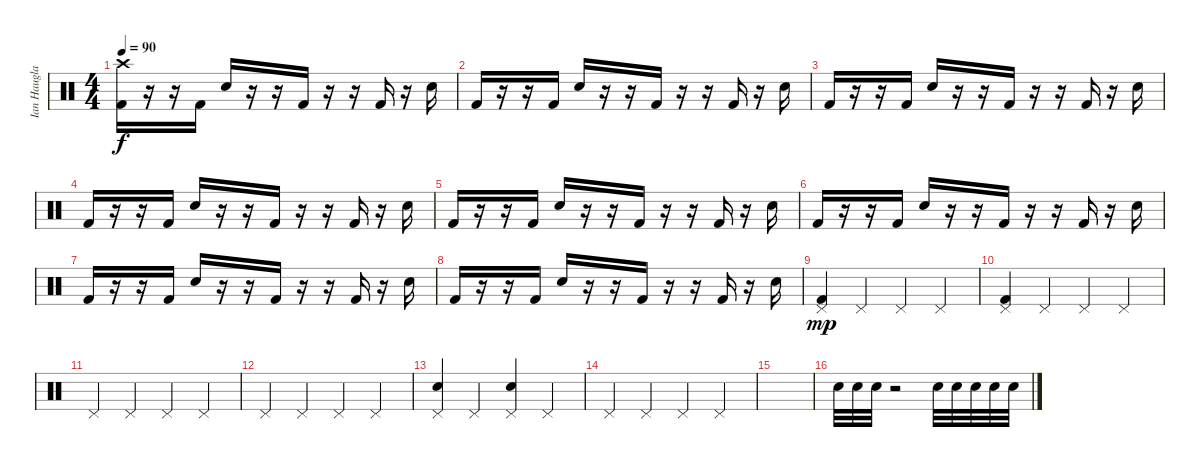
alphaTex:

\track ("Ian Haugland" "Ian Haugla") {instrument percussion}
\staff {score}
\articulation defaults
\ts (4 4)
\tempo 90
\clef neutral
\ks c
("Crash high (hit)" "Kick (hit) 2").16{dy f} r.16 r.16 "Kick (hit) 2".16 "Electric Snare (hit)".16 r.16 r.16 "Kick (hit) 2".16 r.16 r.16 "Kick (hit) 2".16 r.16 "Electric Snare (hit)".16 |
"Kick (hit) 2".16 r.16 r.16 "Kick (hit) 2".16 "Electric Snare (hit)".16 r.16 r.16 "Kick (hit) 2".16 r.16 r.16 "Kick (hit) 2".16 r.16 "Electric Snare (hit)".16 |
"Kick (hit) 2".16 r.16 r.16 "Kick (hit) 2".16 "Electric Snare (hit)".16 r.16 r.16 "Kick (hit) 2".16 r.16 r.16 "Kick (hit) 2".16 r.16 "Electric Snare (hit)".16 |
"Kick (hit) 2".16 r.16 r.16 "Kick (hit) 2".16 "Electric Snare (hit)".16 r.16 r.16 "Kick (hit) 2".16 r.16 r.16 "Kick (hit) 2".16 r.16 "Electric Snare (hit)".16 |
"Kick (hit) 2".16 r.16 r.16 "Kick (hit) 2".16 "Electric Snare (hit)".16 r.16 r.16 "Kick (hit) 2".16 r.16 r.16 "Kick (hit) 2".16 r.16 "Electric Snare (hit)".16 |
"Kick (hit) 2".16 r.16 r.16 "Kick (hit) 2".16 "Electric Snare (hit)".16 r.16 r.16 "Kick (hit) 2".16 r.16 r.16 "Kick (hit) 2".16 r.16 "Electric Snare (hit)".16 |
"Kick (hit) 2".16 r.16 r.16 "Kick (hit) 2".16 "Electric Snare (hit)".16 r.16 r.16 "Kick (hit) 2".16 r.16 r.16 "Kick (hit) 2".16 r.16 "Electric Snare (hit)".16 |
"Kick (hit) 2".16 r.16 r.16 "Kick (hit) 2".16 "Electric Snare (hit)".16 r.16 r.16 "Kick (hit) 2".16 r.16 r.16 "Kick (hit) 2".16 r.16 "Electric Snare (hit)".16 |
("Pedal Hi-Hat (hit)" "Kick (hit) 2").4{dy mp} "Pedal Hi-Hat (hit)".4 "Pedal Hi-Hat (hit)".4 "Pedal Hi-Hat (hit)".4 |
("Pedal Hi-Hat (hit)" "Kick (hit) 2").4 "Pedal Hi-Hat (hit)".4 "Pedal Hi-Hat (hit)".4 "Pedal Hi-Hat (hit)".4 |
"Pedal Hi-Hat (hit)".4 "Pedal Hi-Hat (hit)".4 "Pedal Hi-Hat (hit)".4 "Pedal Hi-Hat (hit)".4 |
"Pedal Hi-Hat (hit)".4 "Pedal Hi-Hat (hit)".4 "Pedal Hi-Hat (hit)".4 "Pedal Hi-Hat (hit)".4 |
("Pedal Hi-Hat (hit)" "Electric Snare (hit)").4 "Pedal Hi-Hat (hit)".4 ("Pedal Hi-Hat (hit)" "Electric Snare (hit)").4 "Pedal Hi-Hat (hit)".4 |
"Pedal Hi-Hat (hit)".4 "Pedal Hi-Hat (hit)".4 "Pedal Hi-Hat (hit)".4 "Pedal Hi-Hat (hit)".4 |
|
"Electric Snare (hit)".32 "Electric Snare (hit)".32 "Electric Snare (hit)".32 r.2 "Snare (hit) 2".32 "Snare (hit) 2".32 "Snare (hit) 2".32 "Snare (hit) 2".32 "Snare (hit) 2".32
